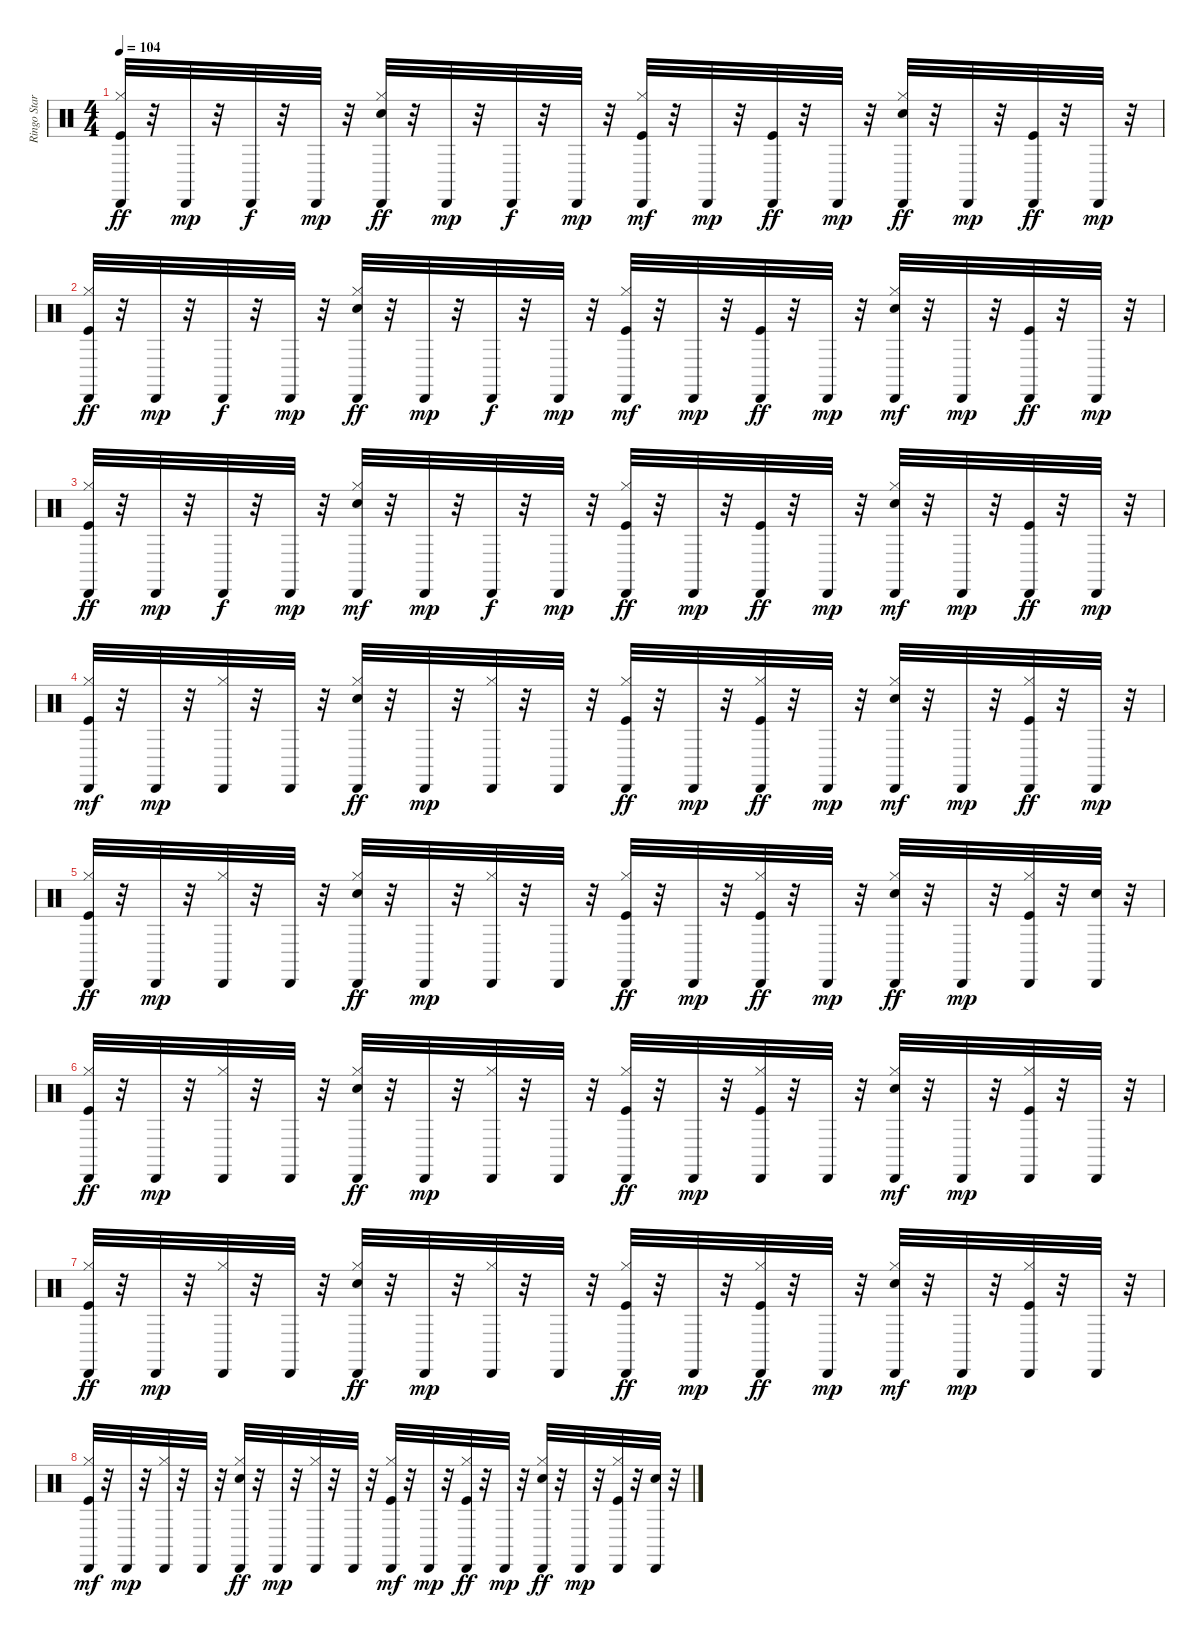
\track ("Ringo Starr - Drums" "Ringo Star") {instrument percussion}
\staff {score}
\articulation defaults
\ts (4 4)
\tempo 104
\clef neutral
\ks c
("Hi-Hat (closed)" "Cabasa (hit)" "Kick (hit)").32{dy ff} r.32 "Cabasa (hit)".32{dy mp} r.32 "Cabasa (hit)".32{dy f} r.32 "Cabasa (hit)".32{dy mp} r.32 ("Hi-Hat (closed)" "Cabasa (hit)" "Snare (hit) 2").32{dy ff} r.32 "Cabasa (hit)".32{dy mp} r.32 "Cabasa (hit)".32{dy f} r.32 "Cabasa (hit)".32{dy mp} r.32 ("Hi-Hat (closed)" "Kick (hit)" "Cabasa (hit)").32{dy mf} r.32 "Cabasa (hit)".32{dy mp} r.32 ("Kick (hit)" "Cabasa (hit)").32{dy ff} r.32 "Cabasa (hit)".32{dy mp} r.32 ("Hi-Hat (closed)" "Cabasa (hit)" "Snare (hit) 2").32{dy ff} r.32 "Cabasa (hit)".32{dy mp} r.32 ("Cabasa (hit)" "Kick (hit)").32{dy ff} r.32 "Cabasa (hit)".32{dy mp} r.32 |
("Hi-Hat (closed)" "Cabasa (hit)" "Kick (hit)").32{dy ff} r.32 "Cabasa (hit)".32{dy mp} r.32 "Cabasa (hit)".32{dy f} r.32 "Cabasa (hit)".32{dy mp} r.32 ("Hi-Hat (closed)" "Cabasa (hit)" "Snare (hit) 2").32{dy ff} r.32 "Cabasa (hit)".32{dy mp} r.32 "Cabasa (hit)".32{dy f} r.32 "Cabasa (hit)".32{dy mp} r.32 ("Hi-Hat (closed)" "Kick (hit)" "Cabasa (hit)").32{dy mf} r.32 "Cabasa (hit)".32{dy mp} r.32 ("Kick (hit)" "Cabasa (hit)").32{dy ff} r.32 "Cabasa (hit)".32{dy mp} r.32 ("Hi-Hat (closed)" "Snare (hit) 2" "Cabasa (hit)").32{dy mf} r.32 "Cabasa (hit)".32{dy mp} r.32 ("Cabasa (hit)" "Kick (hit)").32{dy ff} r.32 "Cabasa (hit)".32{dy mp} r.32 |
("Hi-Hat (closed)" "Cabasa (hit)" "Kick (hit)").32{dy ff} r.32 "Cabasa (hit)".32{dy mp} r.32 "Cabasa (hit)".32{dy f} r.32 "Cabasa (hit)".32{dy mp} r.32 ("Hi-Hat (closed)" "Snare (hit) 2" "Cabasa (hit)").32{dy mf} r.32 "Cabasa (hit)".32{dy mp} r.32 "Cabasa (hit)".32{dy f} r.32 "Cabasa (hit)".32{dy mp} r.32 ("Hi-Hat (closed)" "Cabasa (hit)" "Kick (hit)").32{dy ff} r.32 "Cabasa (hit)".32{dy mp} r.32 ("Cabasa (hit)" "Kick (hit)").32{dy ff} r.32 "Cabasa (hit)".32{dy mp} r.32 ("Hi-Hat (closed)" "Snare (hit) 2" "Cabasa (hit)").32{dy mf} r.32 "Cabasa (hit)".32{dy mp} r.32 ("Cabasa (hit)" "Kick (hit)").32{dy ff} r.32 "Cabasa (hit)".32{dy mp} r.32 |
("Hi-Hat (closed)" "Kick (hit)" "Cabasa (hit)").32{dy mf} r.32 "Cabasa (hit)".32{dy mp} r.32 ("Hi-Hat (closed)" "Cabasa (hit)").32 r.32 "Cabasa (hit)".32 r.32 ("Hi-Hat (closed)" "Cabasa (hit)" "Snare (hit) 2").32{dy ff} r.32 "Cabasa (hit)".32{dy mp} r.32 ("Hi-Hat (closed)" "Cabasa (hit)").32 r.32 "Cabasa (hit)".32 r.32 ("Hi-Hat (closed)" "Cabasa (hit)" "Kick (hit)").32{dy ff} r.32 "Cabasa (hit)".32{dy mp} r.32 ("Hi-Hat (closed)" "Cabasa (hit)" "Kick (hit)").32{dy ff} r.32 "Cabasa (hit)".32{dy mp} r.32 ("Hi-Hat (closed)" "Snare (hit) 2" "Cabasa (hit)").32{dy mf} r.32 "Cabasa (hit)".32{dy mp} r.32 ("Hi-Hat (closed)" "Cabasa (hit)" "Kick (hit)").32{dy ff} r.32 "Cabasa (hit)".32{dy mp} r.32 |
("Hi-Hat (closed)" "Cabasa (hit)" "Kick (hit)").32{dy ff} r.32 "Cabasa (hit)".32{dy mp} r.32 ("Hi-Hat (closed)" "Cabasa (hit)").32 r.32 "Cabasa (hit)".32 r.32 ("Hi-Hat (closed)" "Cabasa (hit)" "Snare (hit) 2").32{dy ff} r.32 "Cabasa (hit)".32{dy mp} r.32 ("Hi-Hat (closed)" "Cabasa (hit)").32 r.32 "Cabasa (hit)".32 r.32 ("Hi-Hat (closed)" "Cabasa (hit)" "Kick (hit)").32{dy ff} r.32 "Cabasa (hit)".32{dy mp} r.32 ("Hi-Hat (closed)" "Cabasa (hit)" "Kick (hit)").32{dy ff} r.32 "Cabasa (hit)".32{dy mp} r.32 ("Hi-Hat (closed)" "Cabasa (hit)" "Snare (hit) 2").32{dy ff} r.32 "Cabasa (hit)".32{dy mp} r.32 ("Hi-Hat (closed)" "Kick (hit)" "Cabasa (hit)").32 r.32 ("Snare (hit) 2" "Cabasa (hit)").32 r.32 |
("Hi-Hat (closed)" "Cabasa (hit)" "Kick (hit)").32{dy ff} r.32 "Cabasa (hit)".32{dy mp} r.32 ("Hi-Hat (closed)" "Cabasa (hit)").32 r.32 "Cabasa (hit)".32 r.32 ("Hi-Hat (closed)" "Cabasa (hit)" "Snare (hit) 2").32{dy ff} r.32 "Cabasa (hit)".32{dy mp} r.32 ("Hi-Hat (closed)" "Cabasa (hit)").32 r.32 "Cabasa (hit)".32 r.32 ("Hi-Hat (closed)" "Cabasa (hit)" "Kick (hit)").32{dy ff} r.32 "Cabasa (hit)".32{dy mp} r.32 ("Hi-Hat (closed)" "Kick (hit)" "Cabasa (hit)").32 r.32 "Cabasa (hit)".32 r.32 ("Hi-Hat (closed)" "Snare (hit) 2" "Cabasa (hit)").32{dy mf} r.32 "Cabasa (hit)".32{dy mp} r.32 ("Hi-Hat (closed)" "Kick (hit)" "Cabasa (hit)").32 r.32 "Cabasa (hit)".32 r.32 |
("Hi-Hat (closed)" "Cabasa (hit)" "Kick (hit)").32{dy ff} r.32 "Cabasa (hit)".32{dy mp} r.32 ("Hi-Hat (closed)" "Cabasa (hit)").32 r.32 "Cabasa (hit)".32 r.32 ("Hi-Hat (closed)" "Cabasa (hit)" "Snare (hit) 2").32{dy ff} r.32 "Cabasa (hit)".32{dy mp} r.32 ("Hi-Hat (closed)" "Cabasa (hit)").32 r.32 "Cabasa (hit)".32 r.32 ("Hi-Hat (closed)" "Cabasa (hit)" "Kick (hit)").32{dy ff} r.32 "Cabasa (hit)".32{dy mp} r.32 ("Hi-Hat (closed)" "Cabasa (hit)" "Kick (hit)").32{dy ff} r.32 "Cabasa (hit)".32{dy mp} r.32 ("Hi-Hat (closed)" "Snare (hit) 2" "Cabasa (hit)").32{dy mf} r.32 "Cabasa (hit)".32{dy mp} r.32 ("Hi-Hat (closed)" "Kick (hit)" "Cabasa (hit)").32 r.32 "Cabasa (hit)".32 r.32 |
("Hi-Hat (closed)" "Kick (hit)" "Cabasa (hit)").32{dy mf} r.32 "Cabasa (hit)".32{dy mp} r.32 ("Hi-Hat (closed)" "Cabasa (hit)").32 r.32 "Cabasa (hit)".32 r.32 ("Hi-Hat (closed)" "Cabasa (hit)" "Snare (hit) 2").32{dy ff} r.32 "Cabasa (hit)".32{dy mp} r.32 ("Hi-Hat (closed)" "Cabasa (hit)").32 r.32 "Cabasa (hit)".32 r.32 ("Hi-Hat (closed)" "Kick (hit)" "Cabasa (hit)").32{dy mf} r.32 "Cabasa (hit)".32{dy mp} r.32 ("Hi-Hat (closed)" "Cabasa (hit)" "Kick (hit)").32{dy ff} r.32 "Cabasa (hit)".32{dy mp} r.32 ("Hi-Hat (closed)" "Cabasa (hit)" "Snare (hit) 2").32{dy ff} r.32 "Cabasa (hit)".32{dy mp} r.32 ("Hi-Hat (closed)" "Kick (hit)" "Cabasa (hit)").32 r.32 ("Snare (hit) 2" "Cabasa (hit)").32 r.32
